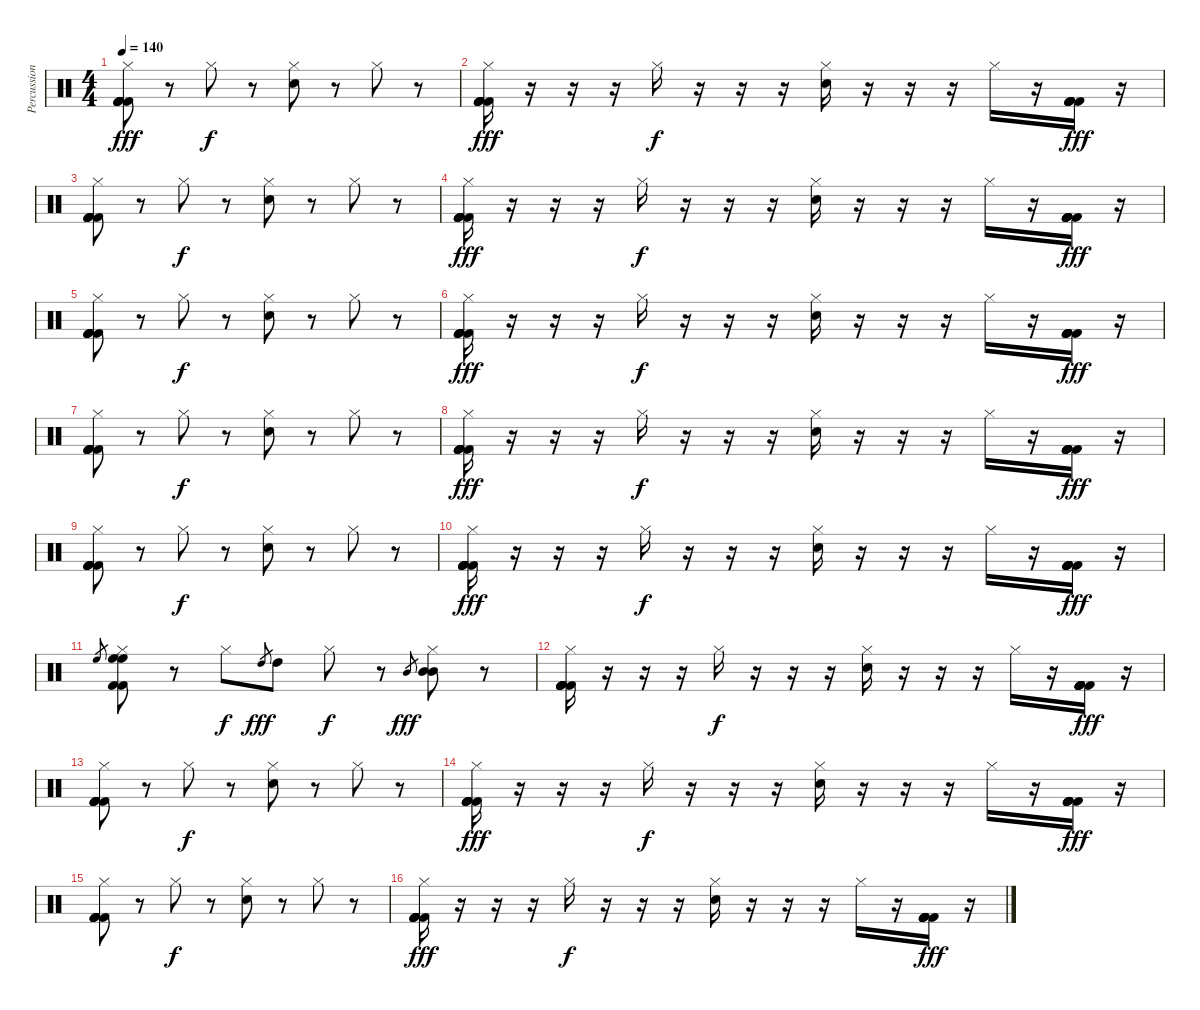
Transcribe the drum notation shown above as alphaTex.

\track ("Percussions" "Percussion") {instrument percussion}
\staff {score}
\articulation defaults
\ts (4 4)
\tempo 140
\clef neutral
\ks c
("Hi-Hat (closed)" "Kick (hit) 2" "Kick (hit) 2" "Kick (hit) 2" "Kick (hit) 2" "Kick (hit) 2").8{dy fff} r.8 "Hi-Hat (closed)".8{dy f} r.8 ("Hi-Hat (closed)" "Snare (hit) 2").8 r.8 "Hi-Hat (closed)".8 r.8 |
("Hi-Hat (closed)" "Kick (hit) 2" "Kick (hit) 2" "Kick (hit) 2" "Kick (hit) 2" "Kick (hit) 2").16{dy fff} r.16 r.16 r.16 "Hi-Hat (closed)".16{dy f} r.16 r.16 r.16 ("Hi-Hat (closed)" "Snare (hit) 2").16 r.16 r.16 r.16 "Hi-Hat (closed)".16 r.16 ("Kick (hit) 2" "Kick (hit) 2" "Kick (hit) 2" "Kick (hit) 2" "Kick (hit) 2" "Kick (hit) 2").16{dy fff} r.16 |
("Hi-Hat (closed)" "Kick (hit) 2" "Kick (hit) 2" "Kick (hit) 2" "Kick (hit) 2" "Kick (hit) 2").8 r.8 "Hi-Hat (closed)".8{dy f} r.8 ("Hi-Hat (closed)" "Snare (hit) 2").8 r.8 "Hi-Hat (closed)".8 r.8 |
("Hi-Hat (closed)" "Kick (hit) 2" "Kick (hit) 2" "Kick (hit) 2" "Kick (hit) 2" "Kick (hit) 2").16{dy fff} r.16 r.16 r.16 "Hi-Hat (closed)".16{dy f} r.16 r.16 r.16 ("Hi-Hat (closed)" "Snare (hit) 2").16 r.16 r.16 r.16 "Hi-Hat (closed)".16 r.16 ("Kick (hit) 2" "Kick (hit) 2" "Kick (hit) 2" "Kick (hit) 2" "Kick (hit) 2" "Kick (hit) 2").16{dy fff} r.16 |
("Hi-Hat (closed)" "Kick (hit) 2" "Kick (hit) 2" "Kick (hit) 2" "Kick (hit) 2" "Kick (hit) 2").8 r.8 "Hi-Hat (closed)".8{dy f} r.8 ("Hi-Hat (closed)" "Snare (hit) 2").8 r.8 "Hi-Hat (closed)".8 r.8 |
("Hi-Hat (closed)" "Kick (hit) 2" "Kick (hit) 2" "Kick (hit) 2" "Kick (hit) 2" "Kick (hit) 2").16{dy fff} r.16 r.16 r.16 "Hi-Hat (closed)".16{dy f} r.16 r.16 r.16 ("Hi-Hat (closed)" "Snare (hit) 2").16 r.16 r.16 r.16 "Hi-Hat (closed)".16 r.16 ("Kick (hit) 2" "Kick (hit) 2" "Kick (hit) 2" "Kick (hit) 2" "Kick (hit) 2" "Kick (hit) 2").16{dy fff} r.16 |
("Hi-Hat (closed)" "Kick (hit) 2" "Kick (hit) 2" "Kick (hit) 2" "Kick (hit) 2" "Kick (hit) 2").8 r.8 "Hi-Hat (closed)".8{dy f} r.8 ("Hi-Hat (closed)" "Snare (hit) 2").8 r.8 "Hi-Hat (closed)".8 r.8 |
("Hi-Hat (closed)" "Kick (hit) 2" "Kick (hit) 2" "Kick (hit) 2" "Kick (hit) 2" "Kick (hit) 2").16{dy fff} r.16 r.16 r.16 "Hi-Hat (closed)".16{dy f} r.16 r.16 r.16 ("Hi-Hat (closed)" "Snare (hit) 2").16 r.16 r.16 r.16 "Hi-Hat (closed)".16 r.16 ("Kick (hit) 2" "Kick (hit) 2" "Kick (hit) 2" "Kick (hit) 2" "Kick (hit) 2" "Kick (hit) 2").16{dy fff} r.16 |
("Hi-Hat (closed)" "Kick (hit) 2" "Kick (hit) 2" "Kick (hit) 2" "Kick (hit) 2" "Kick (hit) 2").8 r.8 "Hi-Hat (closed)".8{dy f} r.8 ("Hi-Hat (closed)" "Snare (hit) 2").8 r.8 "Hi-Hat (closed)".8 r.8 |
("Hi-Hat (closed)" "Kick (hit) 2" "Kick (hit) 2" "Kick (hit) 2" "Kick (hit) 2" "Kick (hit) 2").16{dy fff} r.16 r.16 r.16 "Hi-Hat (closed)".16{dy f} r.16 r.16 r.16 ("Hi-Hat (closed)" "Snare (hit) 2").16 r.16 r.16 r.16 "Hi-Hat (closed)".16 r.16 ("Kick (hit) 2" "Kick (hit) 2" "Kick (hit) 2" "Kick (hit) 2" "Kick (hit) 2" "Kick (hit) 2").16{dy fff} r.16 |
"High Floor Tom (hit)".8{gr} ("Hi-Hat (closed)" "High Floor Tom (hit)" "High Floor Tom (hit)" "Kick (hit) 2" "Kick (hit) 2").8 r.8 "Hi-Hat (closed)".8{dy f} "High Tom (hit)".8{gr dy fff} "High Tom (hit)".8 "Hi-Hat (closed)".8{dy f} r.8 "Mid Tom (hit)".8{gr dy fff} ("Hi-Hat (closed)" "Mid Tom (hit)" "Mid Tom (hit)").8 r.8 |
("Hi-Hat (closed)" "Kick (hit) 2" "Kick (hit) 2" "Kick (hit) 2" "Kick (hit) 2" "Kick (hit) 2").16 r.16 r.16 r.16 "Hi-Hat (closed)".16{dy f} r.16 r.16 r.16 ("Hi-Hat (closed)" "Snare (hit) 2").16 r.16 r.16 r.16 "Hi-Hat (closed)".16 r.16 ("Kick (hit) 2" "Kick (hit) 2" "Kick (hit) 2" "Kick (hit) 2" "Kick (hit) 2" "Kick (hit) 2").16{dy fff} r.16 |
("Hi-Hat (closed)" "Kick (hit) 2" "Kick (hit) 2" "Kick (hit) 2" "Kick (hit) 2" "Kick (hit) 2").8 r.8 "Hi-Hat (closed)".8{dy f} r.8 ("Hi-Hat (closed)" "Snare (hit) 2").8 r.8 "Hi-Hat (closed)".8 r.8 |
("Hi-Hat (closed)" "Kick (hit) 2" "Kick (hit) 2" "Kick (hit) 2" "Kick (hit) 2" "Kick (hit) 2").16{dy fff} r.16 r.16 r.16 "Hi-Hat (closed)".16{dy f} r.16 r.16 r.16 ("Hi-Hat (closed)" "Snare (hit) 2").16 r.16 r.16 r.16 "Hi-Hat (closed)".16 r.16 ("Kick (hit) 2" "Kick (hit) 2" "Kick (hit) 2" "Kick (hit) 2" "Kick (hit) 2" "Kick (hit) 2").16{dy fff} r.16 |
("Hi-Hat (closed)" "Kick (hit) 2" "Kick (hit) 2" "Kick (hit) 2" "Kick (hit) 2" "Kick (hit) 2").8 r.8 "Hi-Hat (closed)".8{dy f} r.8 ("Hi-Hat (closed)" "Snare (hit) 2").8 r.8 "Hi-Hat (closed)".8 r.8 |
("Hi-Hat (closed)" "Kick (hit) 2" "Kick (hit) 2" "Kick (hit) 2" "Kick (hit) 2" "Kick (hit) 2").16{dy fff} r.16 r.16 r.16 "Hi-Hat (closed)".16{dy f} r.16 r.16 r.16 ("Hi-Hat (closed)" "Snare (hit) 2").16 r.16 r.16 r.16 "Hi-Hat (closed)".16 r.16 ("Kick (hit) 2" "Kick (hit) 2" "Kick (hit) 2" "Kick (hit) 2" "Kick (hit) 2" "Kick (hit) 2").16{dy fff} r.16
